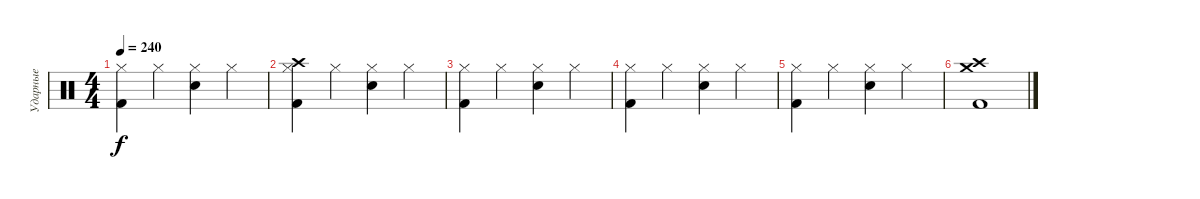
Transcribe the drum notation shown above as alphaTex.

\track ("Ударные" "Ударные") {instrument percussion}
\staff {score}
\articulation defaults
\ts (4 4)
\tempo 240
\clef neutral
\ks c
("Kick (hit) 2" "Hi-Hat (closed)").4{dy f} "Hi-Hat (closed)".4 ("Electric Snare (hit)" "Hi-Hat (closed)").4 "Hi-Hat (closed)".4 |
("Kick (hit) 2" "Hi-Hat (closed)" "Crash high (hit)").4 "Hi-Hat (closed)".4 ("Electric Snare (hit)" "Hi-Hat (closed)").4 "Hi-Hat (closed)".4 |
("Kick (hit) 2" "Hi-Hat (closed)").4 "Hi-Hat (closed)".4 ("Electric Snare (hit)" "Hi-Hat (closed)").4 "Hi-Hat (closed)".4 |
("Kick (hit) 2" "Hi-Hat (closed)").4 "Hi-Hat (closed)".4 ("Electric Snare (hit)" "Hi-Hat (closed)").4 "Hi-Hat (closed)".4 |
("Kick (hit) 2" "Hi-Hat (closed)").4 "Hi-Hat (closed)".4 ("Electric Snare (hit)" "Hi-Hat (closed)").4 "Hi-Hat (closed)".4 |
("Kick (hit) 2" "Crash high (hit)" "Crash medium (hit)").1
